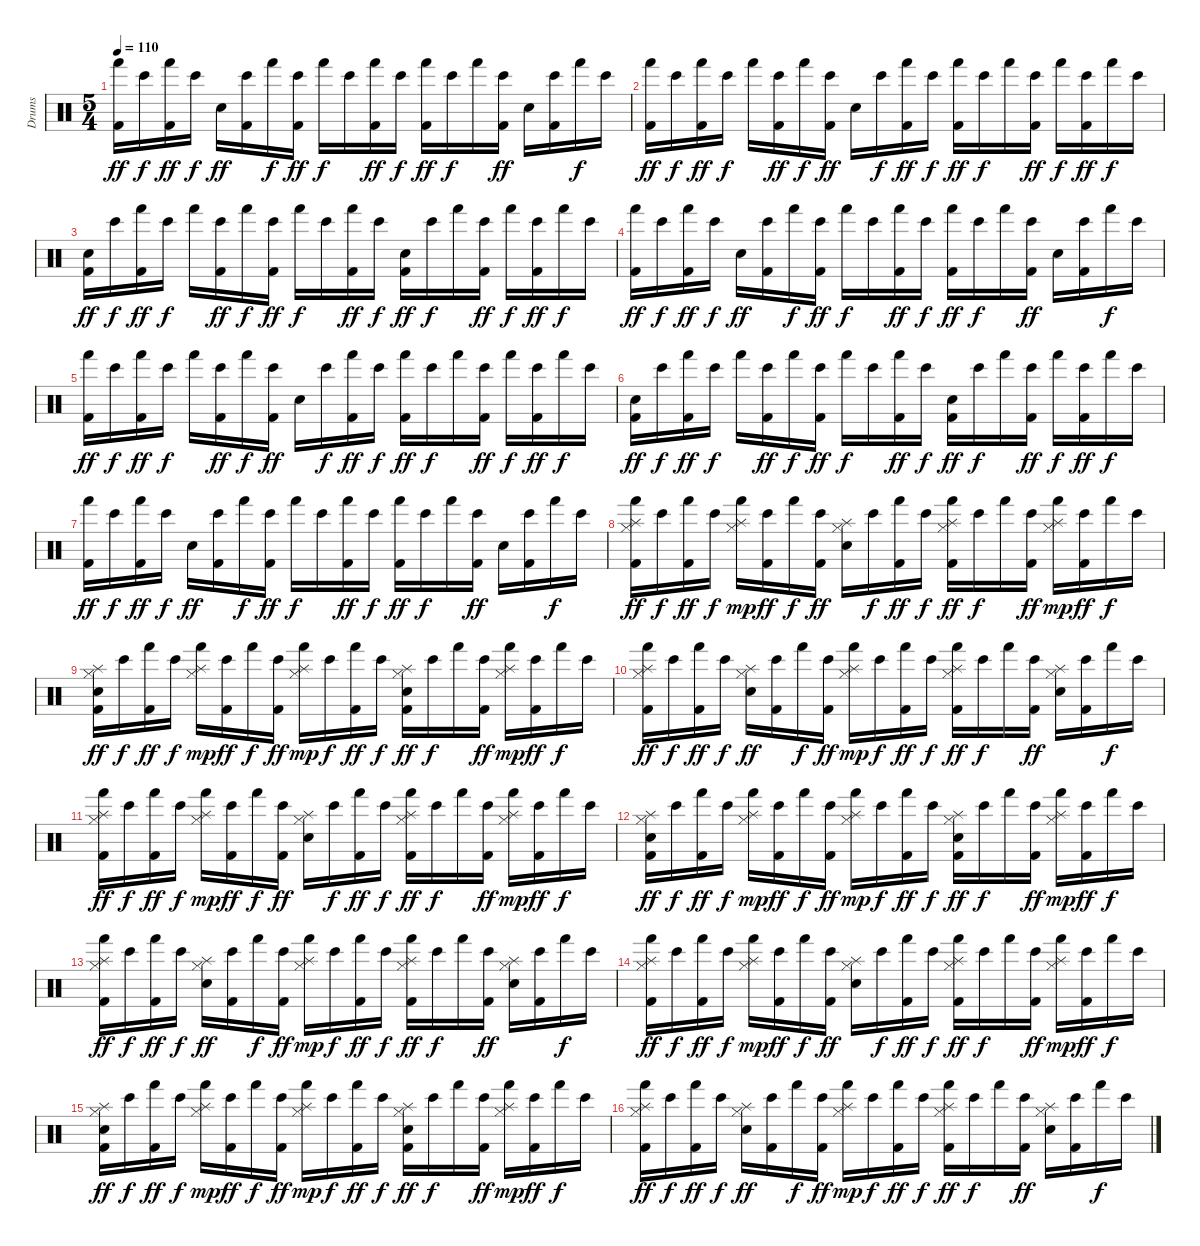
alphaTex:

\track ("Drums" "Drums") {instrument percussion}
\staff {score}
\articulation defaults
\ts (5 4)
\tempo 110
\clef neutral
\ks c
("Hand (hit)" "Kick (hit) 2").16{dy ff} "Bongo High (hit)".16{dy f} ("Hand (hit)" "Kick (hit) 2").16{dy ff} "Bongo High (hit)".16{dy f} "Snare (hit) 2".16{dy ff} ("Bongo High (hit)" "Kick (hit) 2").16 "Hand (hit)".16{dy f} ("Bongo High (hit)" "Kick (hit) 2").16{dy ff} "Hand (hit)".16{dy f} "Bongo High (hit)".16 ("Hand (hit)" "Kick (hit) 2").16{dy ff} "Bongo High (hit)".16{dy f} ("Hand (hit)" "Kick (hit) 2").16{dy ff} "Bongo High (hit)".16{dy f} "Hand (hit)".16 ("Bongo High (hit)" "Kick (hit) 2").16{dy ff} "Snare (hit) 2".16 ("Bongo High (hit)" "Kick (hit) 2").16 "Hand (hit)".16{dy f} "Bongo High (hit)".16 |
("Hand (hit)" "Kick (hit) 2").16{dy ff} "Bongo High (hit)".16{dy f} ("Hand (hit)" "Kick (hit) 2").16{dy ff} "Bongo High (hit)".16{dy f} "Hand (hit)".16 ("Bongo High (hit)" "Kick (hit) 2").16{dy ff} "Hand (hit)".16{dy f} ("Bongo High (hit)" "Kick (hit) 2").16{dy ff} "Snare (hit) 2".16 "Bongo High (hit)".16{dy f} ("Hand (hit)" "Kick (hit) 2").16{dy ff} "Bongo High (hit)".16{dy f} ("Hand (hit)" "Kick (hit) 2").16{dy ff} "Bongo High (hit)".16{dy f} "Hand (hit)".16 ("Bongo High (hit)" "Kick (hit) 2").16{dy ff} "Hand (hit)".16{dy f} ("Bongo High (hit)" "Kick (hit) 2").16{dy ff} "Hand (hit)".16{dy f} "Bongo High (hit)".16 |
("Snare (hit) 2" "Kick (hit) 2").16{dy ff} "Bongo High (hit)".16{dy f} ("Hand (hit)" "Kick (hit) 2").16{dy ff} "Bongo High (hit)".16{dy f} "Hand (hit)".16 ("Bongo High (hit)" "Kick (hit) 2").16{dy ff} "Hand (hit)".16{dy f} ("Bongo High (hit)" "Kick (hit) 2").16{dy ff} "Hand (hit)".16{dy f} "Bongo High (hit)".16 ("Hand (hit)" "Kick (hit) 2").16{dy ff} "Bongo High (hit)".16{dy f} ("Snare (hit) 2" "Kick (hit) 2").16{dy ff} "Bongo High (hit)".16{dy f} "Hand (hit)".16 ("Bongo High (hit)" "Kick (hit) 2").16{dy ff} "Hand (hit)".16{dy f} ("Bongo High (hit)" "Kick (hit) 2").16{dy ff} "Hand (hit)".16{dy f} "Bongo High (hit)".16 |
("Hand (hit)" "Kick (hit) 2").16{dy ff} "Bongo High (hit)".16{dy f} ("Hand (hit)" "Kick (hit) 2").16{dy ff} "Bongo High (hit)".16{dy f} "Snare (hit) 2".16{dy ff} ("Bongo High (hit)" "Kick (hit) 2").16 "Hand (hit)".16{dy f} ("Bongo High (hit)" "Kick (hit) 2").16{dy ff} "Hand (hit)".16{dy f} "Bongo High (hit)".16 ("Hand (hit)" "Kick (hit) 2").16{dy ff} "Bongo High (hit)".16{dy f} ("Hand (hit)" "Kick (hit) 2").16{dy ff} "Bongo High (hit)".16{dy f} "Hand (hit)".16 ("Bongo High (hit)" "Kick (hit) 2").16{dy ff} "Snare (hit) 2".16 ("Bongo High (hit)" "Kick (hit) 2").16 "Hand (hit)".16{dy f} "Bongo High (hit)".16 |
("Hand (hit)" "Kick (hit) 2").16{dy ff} "Bongo High (hit)".16{dy f} ("Hand (hit)" "Kick (hit) 2").16{dy ff} "Bongo High (hit)".16{dy f} "Hand (hit)".16 ("Bongo High (hit)" "Kick (hit) 2").16{dy ff} "Hand (hit)".16{dy f} ("Bongo High (hit)" "Kick (hit) 2").16{dy ff} "Snare (hit) 2".16 "Bongo High (hit)".16{dy f} ("Hand (hit)" "Kick (hit) 2").16{dy ff} "Bongo High (hit)".16{dy f} ("Hand (hit)" "Kick (hit) 2").16{dy ff} "Bongo High (hit)".16{dy f} "Hand (hit)".16 ("Bongo High (hit)" "Kick (hit) 2").16{dy ff} "Hand (hit)".16{dy f} ("Bongo High (hit)" "Kick (hit) 2").16{dy ff} "Hand (hit)".16{dy f} "Bongo High (hit)".16 |
("Snare (hit) 2" "Kick (hit) 2").16{dy ff} "Bongo High (hit)".16{dy f} ("Hand (hit)" "Kick (hit) 2").16{dy ff} "Bongo High (hit)".16{dy f} "Hand (hit)".16 ("Bongo High (hit)" "Kick (hit) 2").16{dy ff} "Hand (hit)".16{dy f} ("Bongo High (hit)" "Kick (hit) 2").16{dy ff} "Hand (hit)".16{dy f} "Bongo High (hit)".16 ("Hand (hit)" "Kick (hit) 2").16{dy ff} "Bongo High (hit)".16{dy f} ("Snare (hit) 2" "Kick (hit) 2").16{dy ff} "Bongo High (hit)".16{dy f} "Hand (hit)".16 ("Bongo High (hit)" "Kick (hit) 2").16{dy ff} "Hand (hit)".16{dy f} ("Bongo High (hit)" "Kick (hit) 2").16{dy ff} "Hand (hit)".16{dy f} "Bongo High (hit)".16 |
("Hand (hit)" "Kick (hit) 2").16{dy ff} "Bongo High (hit)".16{dy f} ("Hand (hit)" "Kick (hit) 2").16{dy ff} "Bongo High (hit)".16{dy f} "Snare (hit) 2".16{dy ff} ("Bongo High (hit)" "Kick (hit) 2").16 "Hand (hit)".16{dy f} ("Bongo High (hit)" "Kick (hit) 2").16{dy ff} "Hand (hit)".16{dy f} "Bongo High (hit)".16 ("Hand (hit)" "Kick (hit) 2").16{dy ff} "Bongo High (hit)".16{dy f} ("Hand (hit)" "Kick (hit) 2").16{dy ff} "Bongo High (hit)".16{dy f} "Hand (hit)".16 ("Bongo High (hit)" "Kick (hit) 2").16{dy ff} "Snare (hit) 2".16 ("Bongo High (hit)" "Kick (hit) 2").16 "Hand (hit)".16{dy f} "Bongo High (hit)".16 |
("Splash (hit)" "Hi-Hat (closed)" "Hand (hit)" "Kick (hit) 2").16{dy ff} "Bongo High (hit)".16{dy f} ("Hand (hit)" "Kick (hit) 2").16{dy ff} "Bongo High (hit)".16{dy f} ("Splash (hit)" "Hi-Hat (closed)" "Hand (hit)").16{dy mp} ("Bongo High (hit)" "Kick (hit) 2").16{dy ff} "Hand (hit)".16{dy f} ("Bongo High (hit)" "Kick (hit) 2").16{dy ff} ("Splash (hit)" "Hi-Hat (closed)" "Snare (hit) 2").16 "Bongo High (hit)".16{dy f} ("Hand (hit)" "Kick (hit) 2").16{dy ff} "Bongo High (hit)".16{dy f} ("Splash (hit)" "Hi-Hat (closed)" "Hand (hit)" "Kick (hit) 2").16{dy ff} "Bongo High (hit)".16{dy f} "Hand (hit)".16 ("Bongo High (hit)" "Kick (hit) 2").16{dy ff} ("Splash (hit)" "Hi-Hat (closed)" "Hand (hit)").16{dy mp} ("Bongo High (hit)" "Kick (hit) 2").16{dy ff} "Hand (hit)".16{dy f} "Bongo High (hit)".16 |
("Splash (hit)" "Hi-Hat (closed)" "Snare (hit) 2" "Kick (hit) 2").16{dy ff} "Bongo High (hit)".16{dy f} ("Hand (hit)" "Kick (hit) 2").16{dy ff} "Bongo High (hit)".16{dy f} ("Splash (hit)" "Hi-Hat (closed)" "Hand (hit)").16{dy mp} ("Bongo High (hit)" "Kick (hit) 2").16{dy ff} "Hand (hit)".16{dy f} ("Bongo High (hit)" "Kick (hit) 2").16{dy ff} ("Splash (hit)" "Hi-Hat (closed)" "Hand (hit)").16{dy mp} "Bongo High (hit)".16{dy f} ("Hand (hit)" "Kick (hit) 2").16{dy ff} "Bongo High (hit)".16{dy f} ("Splash (hit)" "Hi-Hat (closed)" "Snare (hit) 2" "Kick (hit) 2").16{dy ff} "Bongo High (hit)".16{dy f} "Hand (hit)".16 ("Bongo High (hit)" "Kick (hit) 2").16{dy ff} ("Splash (hit)" "Hi-Hat (closed)" "Hand (hit)").16{dy mp} ("Bongo High (hit)" "Kick (hit) 2").16{dy ff} "Hand (hit)".16{dy f} "Bongo High (hit)".16 |
("Splash (hit)" "Hi-Hat (closed)" "Hand (hit)" "Kick (hit) 2").16{dy ff} "Bongo High (hit)".16{dy f} ("Hand (hit)" "Kick (hit) 2").16{dy ff} "Bongo High (hit)".16{dy f} ("Splash (hit)" "Hi-Hat (closed)" "Snare (hit) 2").16{dy ff} ("Bongo High (hit)" "Kick (hit) 2").16 "Hand (hit)".16{dy f} ("Bongo High (hit)" "Kick (hit) 2").16{dy ff} ("Splash (hit)" "Hi-Hat (closed)" "Hand (hit)").16{dy mp} "Bongo High (hit)".16{dy f} ("Hand (hit)" "Kick (hit) 2").16{dy ff} "Bongo High (hit)".16{dy f} ("Splash (hit)" "Hi-Hat (closed)" "Hand (hit)" "Kick (hit) 2").16{dy ff} "Bongo High (hit)".16{dy f} "Hand (hit)".16 ("Bongo High (hit)" "Kick (hit) 2").16{dy ff} ("Splash (hit)" "Hi-Hat (closed)" "Snare (hit) 2").16 ("Bongo High (hit)" "Kick (hit) 2").16 "Hand (hit)".16{dy f} "Bongo High (hit)".16 |
("Splash (hit)" "Hi-Hat (closed)" "Hand (hit)" "Kick (hit) 2").16{dy ff} "Bongo High (hit)".16{dy f} ("Hand (hit)" "Kick (hit) 2").16{dy ff} "Bongo High (hit)".16{dy f} ("Splash (hit)" "Hi-Hat (closed)" "Hand (hit)").16{dy mp} ("Bongo High (hit)" "Kick (hit) 2").16{dy ff} "Hand (hit)".16{dy f} ("Bongo High (hit)" "Kick (hit) 2").16{dy ff} ("Splash (hit)" "Hi-Hat (closed)" "Snare (hit) 2").16 "Bongo High (hit)".16{dy f} ("Hand (hit)" "Kick (hit) 2").16{dy ff} "Bongo High (hit)".16{dy f} ("Splash (hit)" "Hi-Hat (closed)" "Hand (hit)" "Kick (hit) 2").16{dy ff} "Bongo High (hit)".16{dy f} "Hand (hit)".16 ("Bongo High (hit)" "Kick (hit) 2").16{dy ff} ("Splash (hit)" "Hi-Hat (closed)" "Hand (hit)").16{dy mp} ("Bongo High (hit)" "Kick (hit) 2").16{dy ff} "Hand (hit)".16{dy f} "Bongo High (hit)".16 |
("Splash (hit)" "Hi-Hat (closed)" "Snare (hit) 2" "Kick (hit) 2").16{dy ff} "Bongo High (hit)".16{dy f} ("Hand (hit)" "Kick (hit) 2").16{dy ff} "Bongo High (hit)".16{dy f} ("Splash (hit)" "Hi-Hat (closed)" "Hand (hit)").16{dy mp} ("Bongo High (hit)" "Kick (hit) 2").16{dy ff} "Hand (hit)".16{dy f} ("Bongo High (hit)" "Kick (hit) 2").16{dy ff} ("Splash (hit)" "Hi-Hat (closed)" "Hand (hit)").16{dy mp} "Bongo High (hit)".16{dy f} ("Hand (hit)" "Kick (hit) 2").16{dy ff} "Bongo High (hit)".16{dy f} ("Splash (hit)" "Hi-Hat (closed)" "Snare (hit) 2" "Kick (hit) 2").16{dy ff} "Bongo High (hit)".16{dy f} "Hand (hit)".16 ("Bongo High (hit)" "Kick (hit) 2").16{dy ff} ("Splash (hit)" "Hi-Hat (closed)" "Hand (hit)").16{dy mp} ("Bongo High (hit)" "Kick (hit) 2").16{dy ff} "Hand (hit)".16{dy f} "Bongo High (hit)".16 |
("Splash (hit)" "Hi-Hat (closed)" "Hand (hit)" "Kick (hit) 2").16{dy ff} "Bongo High (hit)".16{dy f} ("Hand (hit)" "Kick (hit) 2").16{dy ff} "Bongo High (hit)".16{dy f} ("Splash (hit)" "Hi-Hat (closed)" "Snare (hit) 2").16{dy ff} ("Bongo High (hit)" "Kick (hit) 2").16 "Hand (hit)".16{dy f} ("Bongo High (hit)" "Kick (hit) 2").16{dy ff} ("Splash (hit)" "Hi-Hat (closed)" "Hand (hit)").16{dy mp} "Bongo High (hit)".16{dy f} ("Hand (hit)" "Kick (hit) 2").16{dy ff} "Bongo High (hit)".16{dy f} ("Splash (hit)" "Hi-Hat (closed)" "Hand (hit)" "Kick (hit) 2").16{dy ff} "Bongo High (hit)".16{dy f} "Hand (hit)".16 ("Bongo High (hit)" "Kick (hit) 2").16{dy ff} ("Splash (hit)" "Hi-Hat (closed)" "Snare (hit) 2").16 ("Bongo High (hit)" "Kick (hit) 2").16 "Hand (hit)".16{dy f} "Bongo High (hit)".16 |
("Splash (hit)" "Hi-Hat (closed)" "Hand (hit)" "Kick (hit) 2").16{dy ff} "Bongo High (hit)".16{dy f} ("Hand (hit)" "Kick (hit) 2").16{dy ff} "Bongo High (hit)".16{dy f} ("Splash (hit)" "Hi-Hat (closed)" "Hand (hit)").16{dy mp} ("Bongo High (hit)" "Kick (hit) 2").16{dy ff} "Hand (hit)".16{dy f} ("Bongo High (hit)" "Kick (hit) 2").16{dy ff} ("Splash (hit)" "Hi-Hat (closed)" "Snare (hit) 2").16 "Bongo High (hit)".16{dy f} ("Hand (hit)" "Kick (hit) 2").16{dy ff} "Bongo High (hit)".16{dy f} ("Splash (hit)" "Hi-Hat (closed)" "Hand (hit)" "Kick (hit) 2").16{dy ff} "Bongo High (hit)".16{dy f} "Hand (hit)".16 ("Bongo High (hit)" "Kick (hit) 2").16{dy ff} ("Splash (hit)" "Hi-Hat (closed)" "Hand (hit)").16{dy mp} ("Bongo High (hit)" "Kick (hit) 2").16{dy ff} "Hand (hit)".16{dy f} "Bongo High (hit)".16 |
("Splash (hit)" "Hi-Hat (closed)" "Snare (hit) 2" "Kick (hit) 2").16{dy ff} "Bongo High (hit)".16{dy f} ("Hand (hit)" "Kick (hit) 2").16{dy ff} "Bongo High (hit)".16{dy f} ("Splash (hit)" "Hi-Hat (closed)" "Hand (hit)").16{dy mp} ("Bongo High (hit)" "Kick (hit) 2").16{dy ff} "Hand (hit)".16{dy f} ("Bongo High (hit)" "Kick (hit) 2").16{dy ff} ("Splash (hit)" "Hi-Hat (closed)" "Hand (hit)").16{dy mp} "Bongo High (hit)".16{dy f} ("Hand (hit)" "Kick (hit) 2").16{dy ff} "Bongo High (hit)".16{dy f} ("Splash (hit)" "Hi-Hat (closed)" "Snare (hit) 2" "Kick (hit) 2").16{dy ff} "Bongo High (hit)".16{dy f} "Hand (hit)".16 ("Bongo High (hit)" "Kick (hit) 2").16{dy ff} ("Splash (hit)" "Hi-Hat (closed)" "Hand (hit)").16{dy mp} ("Bongo High (hit)" "Kick (hit) 2").16{dy ff} "Hand (hit)".16{dy f} "Bongo High (hit)".16 |
("Splash (hit)" "Hi-Hat (closed)" "Hand (hit)" "Kick (hit) 2").16{dy ff} "Bongo High (hit)".16{dy f} ("Hand (hit)" "Kick (hit) 2").16{dy ff} "Bongo High (hit)".16{dy f} ("Splash (hit)" "Hi-Hat (closed)" "Snare (hit) 2").16{dy ff} ("Bongo High (hit)" "Kick (hit) 2").16 "Hand (hit)".16{dy f} ("Bongo High (hit)" "Kick (hit) 2").16{dy ff} ("Splash (hit)" "Hi-Hat (closed)" "Hand (hit)").16{dy mp} "Bongo High (hit)".16{dy f} ("Hand (hit)" "Kick (hit) 2").16{dy ff} "Bongo High (hit)".16{dy f} ("Splash (hit)" "Hi-Hat (closed)" "Hand (hit)" "Kick (hit) 2").16{dy ff} "Bongo High (hit)".16{dy f} "Hand (hit)".16 ("Bongo High (hit)" "Kick (hit) 2").16{dy ff} ("Splash (hit)" "Hi-Hat (closed)" "Snare (hit) 2").16 ("Bongo High (hit)" "Kick (hit) 2").16 "Hand (hit)".16{dy f} "Bongo High (hit)".16
